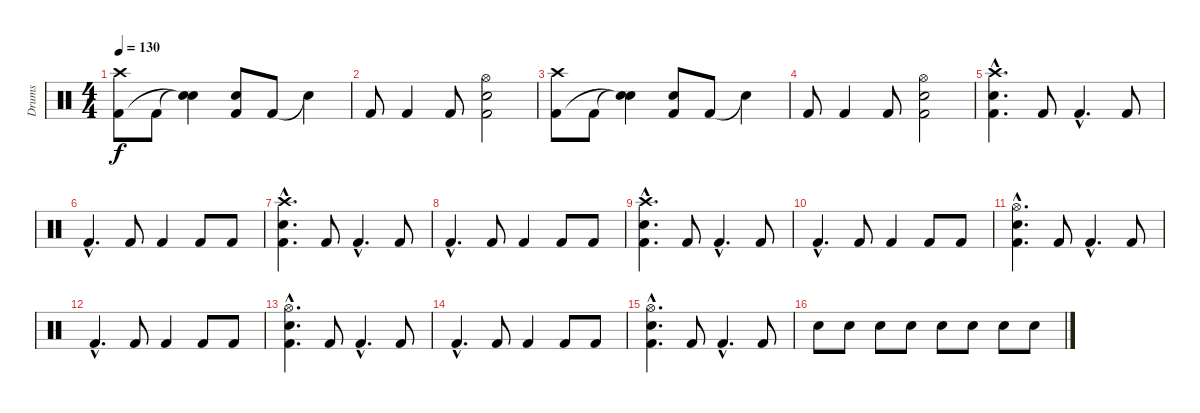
\track ("Drums" "Drums") {instrument percussion}
\staff {score}
\articulation defaults
\ts (4 4)
\tempo 130
\clef neutral
\ks c
("Crash high (hit)" "Kick (hit) 2").8{dy f} "Kick (hit) 2".8 ("Snare (hit)"{t} "Snare (hit)"{t}).4 ("Electric Snare (hit)" "Kick (hit) 2").8 "Kick (hit) 2".8 "Snare (hit)"{t}.4 |
"Kick (hit) 2".8 "Kick (hit) 2".4 "Kick (hit) 2".8 ("Hi-Hat (open)" "Electric Snare (hit)" "Kick (hit) 2").2 |
("Crash high (hit)" "Kick (hit) 2").8 "Kick (hit) 2".8 ("Snare (hit)"{t} "Snare (hit)"{t}).4 ("Electric Snare (hit)" "Kick (hit) 2").8 "Kick (hit) 2".8 "Snare (hit)"{t}.4 |
"Kick (hit) 2".8 "Kick (hit) 2".4 "Kick (hit) 2".8 ("Hi-Hat (open)" "Electric Snare (hit)" "Kick (hit) 2").2 |
("Crash high (hit)"{hac} "Electric Snare (hit)"{hac} "Kick (hit) 2"{hac}).4{d} "Kick (hit) 2".8 "Kick (hit) 2"{hac}.4{d} "Kick (hit) 2".8 |
"Kick (hit) 2"{hac}.4{d} "Kick (hit) 2".8 "Kick (hit) 2".4 "Kick (hit) 2".8 "Kick (hit) 2".8 |
("Crash high (hit)"{hac} "Electric Snare (hit)"{hac} "Kick (hit) 2"{hac}).4{d} "Kick (hit) 2".8 "Kick (hit) 2"{hac}.4{d} "Kick (hit) 2".8 |
"Kick (hit) 2"{hac}.4{d} "Kick (hit) 2".8 "Kick (hit) 2".4 "Kick (hit) 2".8 "Kick (hit) 2".8 |
("Crash high (hit)"{hac} "Electric Snare (hit)"{hac} "Kick (hit) 2"{hac}).4{d} "Kick (hit) 2".8 "Kick (hit) 2"{hac}.4{d} "Kick (hit) 2".8 |
"Kick (hit) 2"{hac}.4{d} "Kick (hit) 2".8 "Kick (hit) 2".4 "Kick (hit) 2".8 "Kick (hit) 2".8 |
("Hi-Hat (open)"{hac} "Electric Snare (hit)"{hac} "Kick (hit) 2"{hac}).4{d} "Kick (hit) 2".8 "Kick (hit) 2"{hac}.4{d} "Kick (hit) 2".8 |
"Kick (hit) 2"{hac}.4{d} "Kick (hit) 2".8 "Kick (hit) 2".4 "Kick (hit) 2".8 "Kick (hit) 2".8 |
("Hi-Hat (open)"{hac} "Electric Snare (hit)"{hac} "Kick (hit) 2"{hac}).4{d} "Kick (hit) 2".8 "Kick (hit) 2"{hac}.4{d} "Kick (hit) 2".8 |
"Kick (hit) 2"{hac}.4{d} "Kick (hit) 2".8 "Kick (hit) 2".4 "Kick (hit) 2".8 "Kick (hit) 2".8 |
("Hi-Hat (open)"{hac} "Electric Snare (hit)"{hac} "Kick (hit) 2"{hac}).4{d} "Kick (hit) 2".8 "Kick (hit) 2"{hac}.4{d} "Kick (hit) 2".8 |
"Snare (hit) 2".8{volume 10} "Snare (hit) 2".8{volume 16} "Snare (hit) 2".8 "Snare (hit) 2".8 "Snare (hit) 2".8 "Snare (hit) 2".8 "Snare (hit) 2".8 "Snare (hit) 2".8
